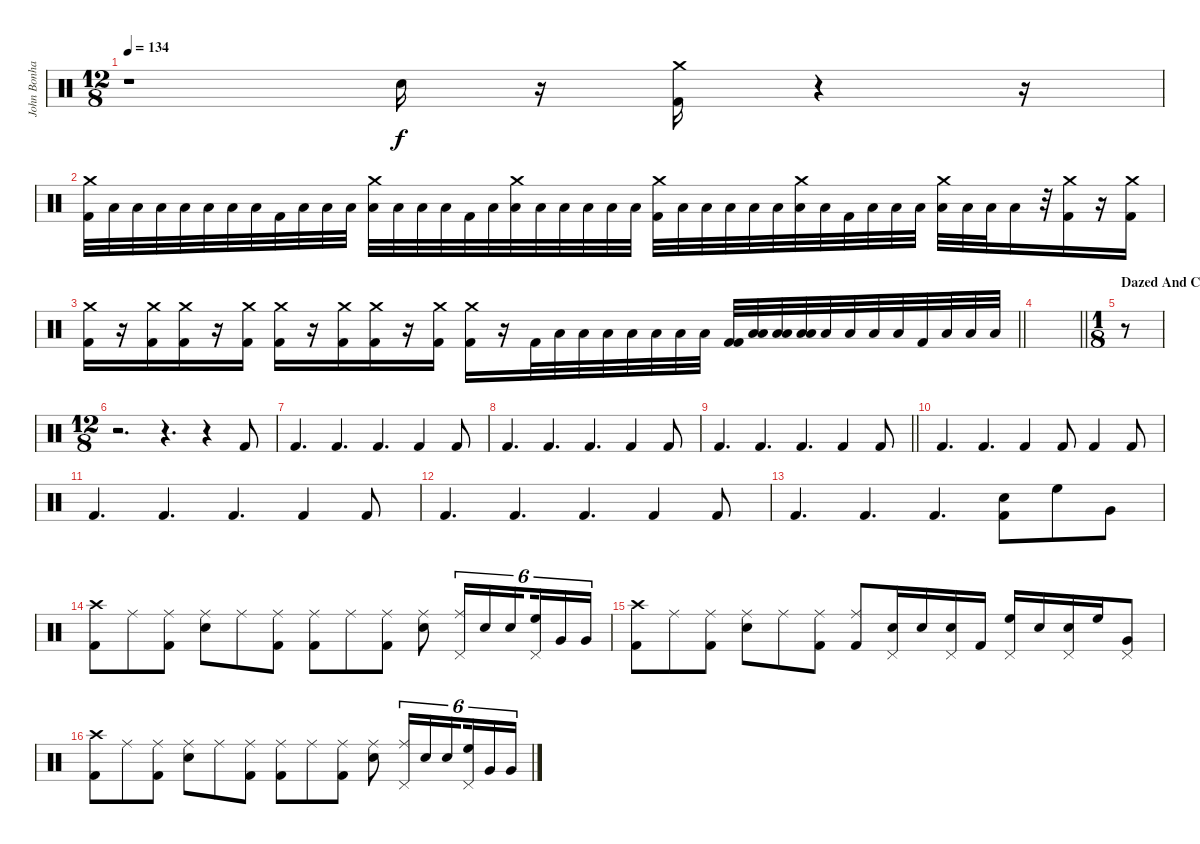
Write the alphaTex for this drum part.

\track ("John Bonham - Drums" "John Bonha") {instrument percussion}
\staff {score}
\articulation defaults
\ts (12 8)
\tempo 134
\clef neutral
\ks c
r.1{dy f} "Electric Snare (hit)".16 r.16 ("Kick (hit) 2" "Crash medium (hit)").16 r.4 r.16 |
("Crash medium (hit)" "Kick (hit) 2").32 "Low Tom (hit)".32 "Low Tom (hit)".32 "Low Tom (hit)".32 "Low Tom (hit)".32 "Low Tom (hit)".32 "Low Tom (hit)".32 "Low Tom (hit)".32 "Kick (hit) 2".32 "Low Tom (hit)".32 "Low Tom (hit)".32 "Low Tom (hit)".32 ("Crash medium (hit)" "Low Tom (hit)").32 "Low Tom (hit)".32 "Low Tom (hit)".32 "Low Tom (hit)".32 "Kick (hit) 2".32 "Low Tom (hit)".32 ("Crash medium (hit)" "Low Tom (hit)").32 "Low Tom (hit)".32 "Low Tom (hit)".32 "Low Tom (hit)".32 "Low Tom (hit)".32 "Low Tom (hit)".32 ("Crash medium (hit)" "Kick (hit) 2").32 "Low Tom (hit)".32 "Low Tom (hit)".32 "Low Tom (hit)".32 "Low Tom (hit)".32 "Low Tom (hit)".32 ("Crash medium (hit)" "Low Tom (hit)").32 "Low Tom (hit)".32 "Kick (hit) 2".32 "Low Tom (hit)".32 "Low Tom (hit)".32 "Low Tom (hit)".32 ("Crash medium (hit)" "Low Tom (hit)").32 "Low Tom (hit)".32 "Low Tom (hit)".32 "Low Tom (hit)".16 r.32 ("Crash medium (hit)" "Kick (hit) 2").16 r.16 ("Crash medium (hit)" "Kick (hit) 2").16 |
\barLineRight lightlight
("Crash medium (hit)" "Kick (hit) 2").16 r.16 ("Crash medium (hit)" "Kick (hit) 2").16 ("Crash medium (hit)" "Kick (hit) 2").16 r.16 ("Crash medium (hit)" "Kick (hit) 2").16 ("Crash medium (hit)" "Kick (hit) 2").16 r.16 ("Crash medium (hit)" "Kick (hit) 2").16 ("Crash medium (hit)" "Kick (hit) 2").16 r.16 ("Crash medium (hit)" "Kick (hit) 2").16 ("Crash medium (hit)" "Kick (hit) 2").16 r.16 "Kick (hit) 2".32 "Low Tom (hit)".32 "Low Tom (hit)".32 "Low Tom (hit)".32 "Low Tom (hit)".32 "Low Tom (hit)".32 "Low Tom (hit)".32 "Low Tom (hit)".32 ("Kick (hit) 2" "Kick (hit) 2").32 ("Low Tom (hit)" "Low Tom (hit)").32 ("Low Tom (hit)" "Low Tom (hit)").32 ("Low Tom (hit)" "Low Tom (hit)").32 "Low Tom (hit)".32 "Low Tom (hit)".32 "Low Tom (hit)".32 "Low Tom (hit)".32 "Kick (hit) 2".32 "Low Tom (hit)".32 "Low Tom (hit)".32 "Low Tom (hit)".32 |
\barLineRight lightlight
|
\ts (1 8)
\section ("" "Dazed And Confused")
r.8{volume 16} |
\ts (12 8)
r.2{d} r.4{d} r.4 "Kick (hit) 2".8 |
"Kick (hit) 2".4{d} "Kick (hit) 2".4{d} "Kick (hit) 2".4{d} "Kick (hit) 2".4 "Kick (hit) 2".8 |
"Kick (hit) 2".4{d} "Kick (hit) 2".4{d} "Kick (hit) 2".4{d} "Kick (hit) 2".4 "Kick (hit) 2".8 |
\barLineRight lightlight "Kick (hit) 2".4{d} "Kick (hit) 2".4{d} "Kick (hit) 2".4{d} "Kick (hit) 2".4 "Kick (hit) 2".8
|
"Kick (hit) 2".4{d} "Kick (hit) 2".4{d} "Kick (hit) 2".4 "Kick (hit) 2".8 "Kick (hit) 2".4 "Kick (hit) 2".8 |
"Kick (hit) 2".4{d} "Kick (hit) 2".4{d} "Kick (hit) 2".4{d} "Kick (hit) 2".4 "Kick (hit) 2".8 |
"Kick (hit) 2".4{d} "Kick (hit) 2".4{d} "Kick (hit) 2".4{d} "Kick (hit) 2".4 "Kick (hit) 2".8 |
"Kick (hit) 2".4{d} "Kick (hit) 2".4{d} "Kick (hit) 2".4{d} ("Snare (hit) 2" "Kick (hit) 2").8 "High Floor Tom (hit)".8 "Very Low Tom (hit)".8 |
("Crash high (hit)" "Kick (hit) 2").8 "Ride (middle)".8 ("Ride (middle)" "Kick (hit) 2").8 ("Ride (middle)" "Snare (hit) 2").8 "Ride (middle)".8 ("Ride (middle)" "Kick (hit) 2").8 ("Ride (middle)" "Kick (hit) 2").8 "Ride (middle)".8 ("Ride (middle)" "Kick (hit) 2").8 ("Ride (middle)" "Snare (hit) 2").8 ("Pedal Hi-Hat (hit)" "Ride (middle)").16{tu (6 4)} "Snare (hit) 2".16{tu (6 4)} "Snare (hit) 2".16{tu (6 4) beam splitsecondary} ("Pedal Hi-Hat (hit)" "High Floor Tom (hit)").16{tu (6 4)} "Very Low Tom (hit)".16{tu (6 4)} "Very Low Tom (hit)".16{tu (6 4)} |
("Crash high (hit)" "Kick (hit) 2").8 "Ride (middle)".8 ("Ride (middle)" "Kick (hit) 2").8 ("Ride (middle)" "Snare (hit) 2").8 "Ride (middle)".8 ("Ride (middle)" "Kick (hit) 2").8 ("Ride (middle)" "Kick (hit) 2").8 ("Pedal Hi-Hat (hit)" "Snare (hit) 2").16 "Snare (hit) 2".16 ("Pedal Hi-Hat (hit)" "Snare (hit) 2").16 "Kick (hit) 2".16 ("Pedal Hi-Hat (hit)" "High Floor Tom (hit)").16 "Snare (hit) 2".16 ("Pedal Hi-Hat (hit)" "Snare (hit) 2").16 "High Floor Tom (hit)".16 ("Pedal Hi-Hat (hit)" "Very Low Tom (hit)").8 |
("Crash high (hit)" "Kick (hit) 2").8 "Ride (middle)".8 ("Ride (middle)" "Kick (hit) 2").8 ("Ride (middle)" "Snare (hit) 2").8 "Ride (middle)".8 ("Ride (middle)" "Kick (hit) 2").8 ("Ride (middle)" "Kick (hit) 2").8 "Ride (middle)".8 ("Ride (middle)" "Kick (hit) 2").8 ("Ride (middle)" "Snare (hit) 2").8 ("Pedal Hi-Hat (hit)" "Ride (middle)").16{tu (6 4)} "Snare (hit) 2".16{tu (6 4)} "Snare (hit) 2".16{tu (6 4) beam splitsecondary} ("Pedal Hi-Hat (hit)" "High Floor Tom (hit)").16{tu (6 4)} "Very Low Tom (hit)".16{tu (6 4)} "Very Low Tom (hit)".16{tu (6 4)}
